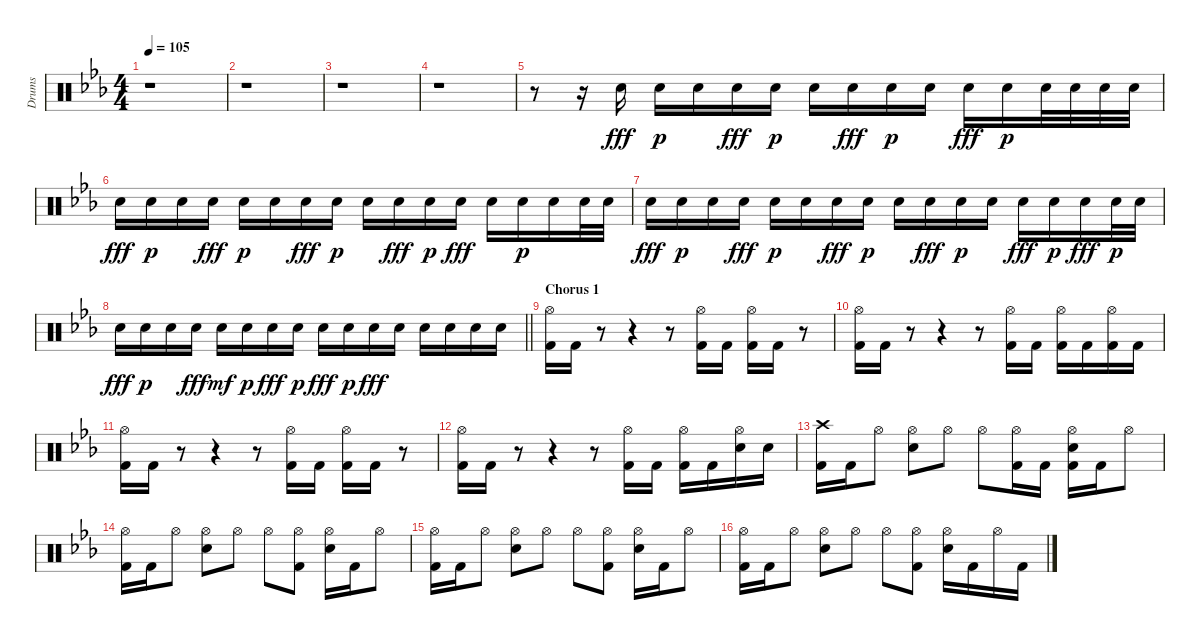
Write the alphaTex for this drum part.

\track ("Drums" "Drums") {instrument percussion}
\staff {score}
\articulation defaults
\ts (4 4)
\tempo 105
\clef neutral
\ks eb
r.1{dy fff} |
r.1 |
r.1 |
r.1 |
r.8 r.16 "Electric Snare (hit)".16 "Electric Snare (hit)".16{dy p} "Electric Snare (hit)".16 "Electric Snare (hit)".16{dy fff} "Electric Snare (hit)".16{dy p} "Electric Snare (hit)".16 "Electric Snare (hit)".16{dy fff} "Electric Snare (hit)".16{dy p} "Electric Snare (hit)".16 "Electric Snare (hit)".16{dy fff} "Electric Snare (hit)".16{dy p} "Electric Snare (hit)".32 "Electric Snare (hit)".32 "Electric Snare (hit)".32 "Electric Snare (hit)".32 |
"Electric Snare (hit)".16{dy fff} "Electric Snare (hit)".16{dy p} "Electric Snare (hit)".16 "Electric Snare (hit)".16{dy fff} "Electric Snare (hit)".16{dy p} "Electric Snare (hit)".16 "Electric Snare (hit)".16{dy fff} "Electric Snare (hit)".16{dy p} "Electric Snare (hit)".16 "Electric Snare (hit)".16{dy fff} "Electric Snare (hit)".16{dy p} "Electric Snare (hit)".16{dy fff} "Electric Snare (hit)".16 "Electric Snare (hit)".16{dy p} "Electric Snare (hit)".16 "Electric Snare (hit)".32 "Electric Snare (hit)".32 |
"Electric Snare (hit)".16{dy fff} "Electric Snare (hit)".16{dy p} "Electric Snare (hit)".16 "Electric Snare (hit)".16{dy fff} "Electric Snare (hit)".16{dy p} "Electric Snare (hit)".16 "Electric Snare (hit)".16{dy fff} "Electric Snare (hit)".16{dy p} "Electric Snare (hit)".16 "Electric Snare (hit)".16{dy fff} "Electric Snare (hit)".16{dy p} "Electric Snare (hit)".16 "Electric Snare (hit)".16{dy fff} "Electric Snare (hit)".16{dy p} "Electric Snare (hit)".16{dy fff} "Electric Snare (hit)".32{dy p} "Electric Snare (hit)".32 |
\barLineRight lightlight "Electric Snare (hit)".16{dy fff} "Electric Snare (hit)".16{dy p} "Electric Snare (hit)".16 "Electric Snare (hit)".16{dy fff} "Electric Snare (hit)".16{dy mf} "Electric Snare (hit)".16{dy p} "Electric Snare (hit)".16{dy fff} "Electric Snare (hit)".16{dy p} "Electric Snare (hit)".16{dy fff} "Electric Snare (hit)".16{dy p} "Electric Snare (hit)".16{dy fff} "Electric Snare (hit)".16 "Electric Snare (hit)".16 "Electric Snare (hit)".16 "Electric Snare (hit)".16 "Electric Snare (hit)".16
|
\section ("" "Chorus 1")
("Hi-Hat (open)" "Kick (hit) 2").16 "Kick (hit) 2".16 r.8 r.4 r.8 ("Hi-Hat (open)" "Kick (hit) 2").16 "Kick (hit) 2".16 ("Hi-Hat (open)" "Kick (hit) 2").16 "Kick (hit) 2".16 r.8 |
("Hi-Hat (open)" "Kick (hit) 2").16 "Kick (hit) 2".16 r.8 r.4 r.8 ("Hi-Hat (open)" "Kick (hit) 2").16 "Kick (hit) 2".16 ("Hi-Hat (open)" "Kick (hit) 2").16 "Kick (hit) 2".16 ("Hi-Hat (open)" "Kick (hit) 2").16 "Kick (hit) 2".16 |
("Hi-Hat (open)" "Kick (hit) 2").16 "Kick (hit) 2".16 r.8 r.4 r.8 ("Hi-Hat (open)" "Kick (hit) 2").16 "Kick (hit) 2".16 ("Hi-Hat (open)" "Kick (hit) 2").16 "Kick (hit) 2".16 r.8 |
("Hi-Hat (open)" "Kick (hit) 2").16 "Kick (hit) 2".16 r.8 r.4 r.8 ("Hi-Hat (open)" "Kick (hit) 2").16 "Kick (hit) 2".16 ("Hi-Hat (open)" "Kick (hit) 2").16 "Kick (hit) 2".16 ("Hi-Hat (open)" "Snare (hit) 2").16 "Snare (hit) 2".16 |
("Crash high (hit)" "Kick (hit) 2").16 "Kick (hit) 2".16 "Hi-Hat (open)".8 ("Hi-Hat (open)" "Snare (hit) 2").8 "Hi-Hat (open)".8 "Hi-Hat (open)".8 ("Hi-Hat (open)" "Kick (hit) 2").16 "Kick (hit) 2".16 ("Hi-Hat (open)" "Snare (hit) 2" "Kick (hit) 2").16 "Kick (hit) 2".16 "Hi-Hat (open)".8 |
("Hi-Hat (open)" "Kick (hit) 2").16 "Kick (hit) 2".16 "Hi-Hat (open)".8 ("Hi-Hat (open)" "Snare (hit) 2").8 "Hi-Hat (open)".8 "Hi-Hat (open)".8 ("Hi-Hat (open)" "Kick (hit) 2").8 ("Hi-Hat (open)" "Snare (hit) 2").16 "Kick (hit) 2".16 "Hi-Hat (open)".8 |
("Hi-Hat (open)" "Kick (hit) 2").16 "Kick (hit) 2".16 "Hi-Hat (open)".8 ("Hi-Hat (open)" "Snare (hit) 2").8 "Hi-Hat (open)".8 "Hi-Hat (open)".8 ("Hi-Hat (open)" "Kick (hit) 2").8 ("Hi-Hat (open)" "Snare (hit) 2").16 "Kick (hit) 2".16 "Hi-Hat (open)".8 |
("Hi-Hat (open)" "Kick (hit) 2").16 "Kick (hit) 2".16 "Hi-Hat (open)".8 ("Hi-Hat (open)" "Snare (hit) 2").8 "Hi-Hat (open)".8 "Hi-Hat (open)".8 ("Hi-Hat (open)" "Kick (hit) 2").8 ("Hi-Hat (open)" "Snare (hit) 2").16 "Kick (hit) 2".16 "Hi-Hat (open)".16 "Kick (hit) 2".16
